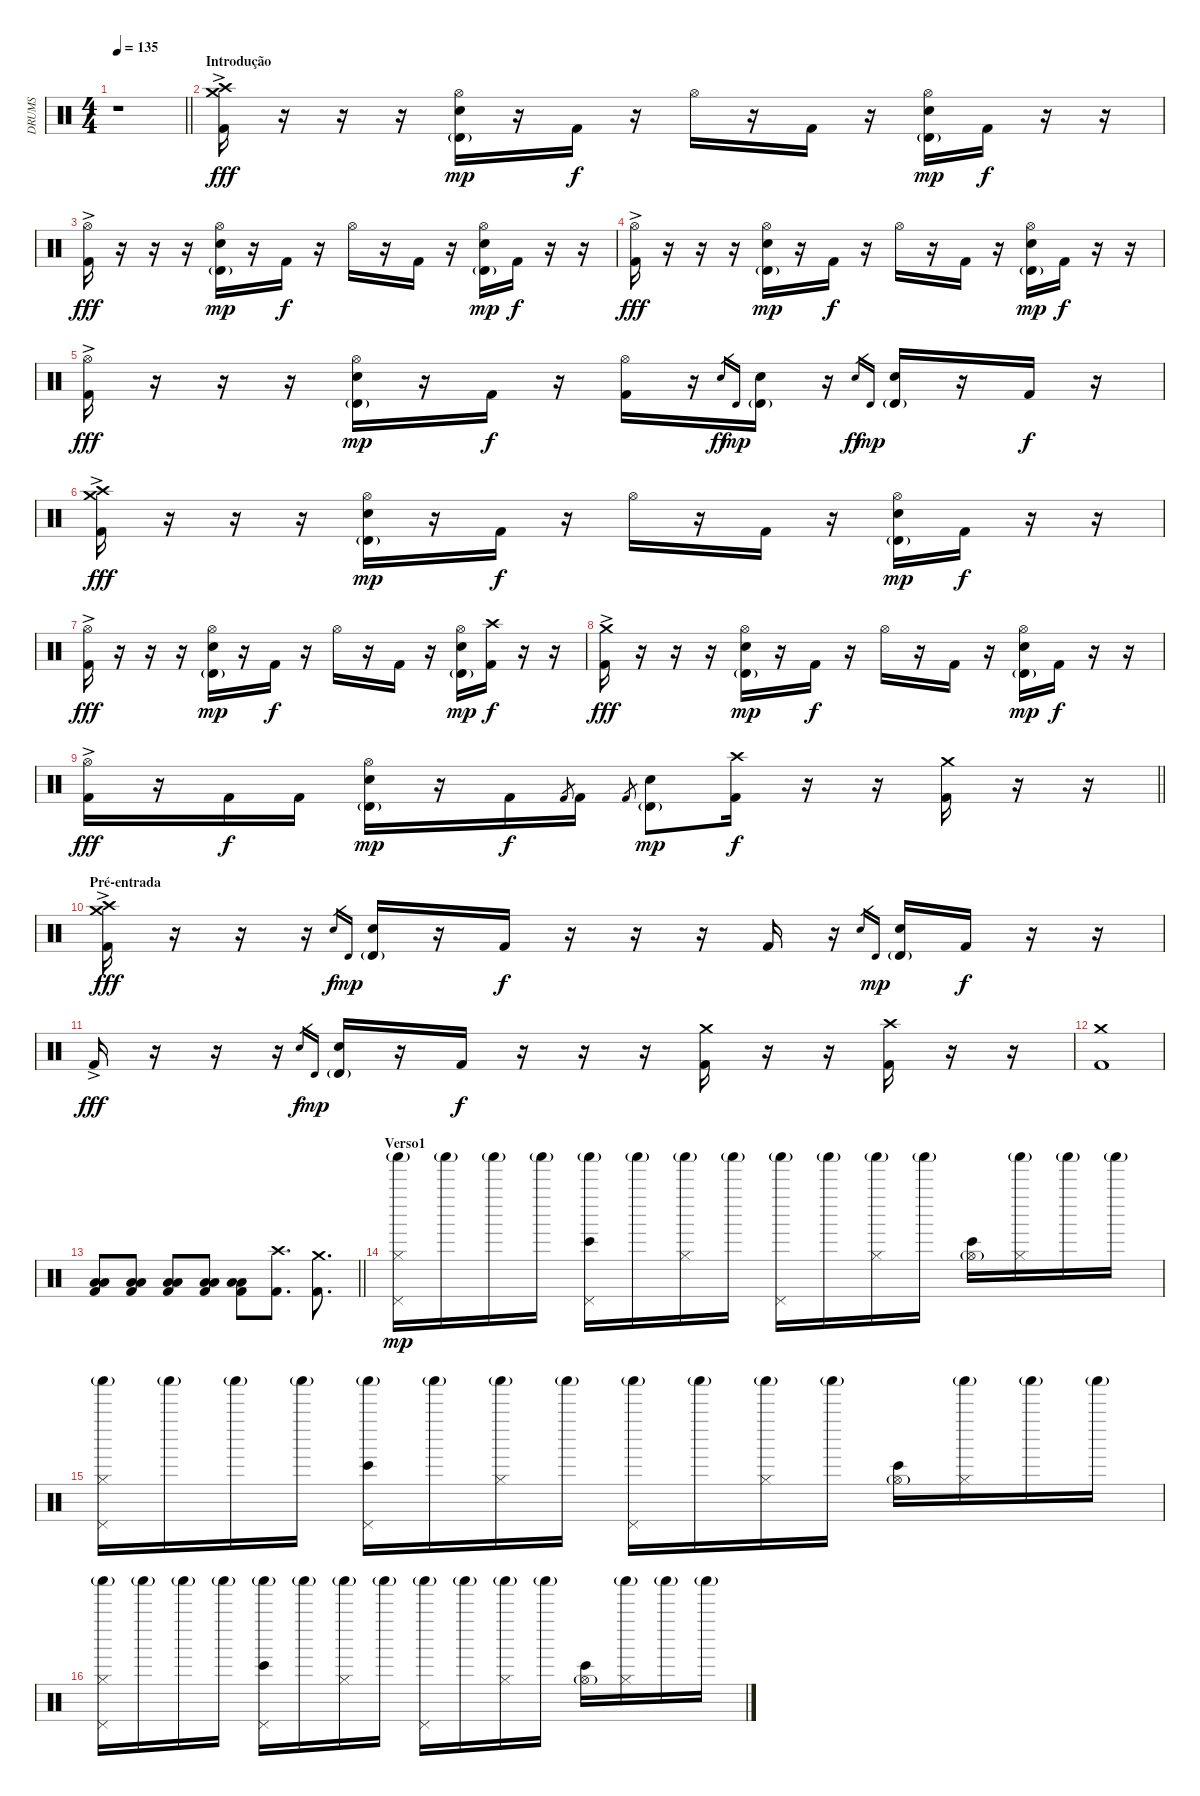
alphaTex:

\track ("DRUMS" "DRUMS") {instrument percussion}
\staff {score}
\articulation defaults
\ts (4 4)
\tempo 135
\clef neutral
\barLineRight lightlight
\ks c
r.1{dy fff} |
\section ("" "Introdução")
("Crash high (hit)" "Crash medium (hit)" "Kick (hit) 2"{ac}).16 r.16 r.16 r.16 ("Hi-Hat (open)" "Electric Snare (hit)" "Timbale high (hit)"{g}).16{dy mp} r.16 "Kick (hit) 2".16{dy f} r.16 "Hi-Hat (open)".16 r.16 "Kick (hit) 2".16 r.16 ("Hi-Hat (open)" "Electric Snare (hit)" "Timbale high (hit)"{g}).16{dy mp} "Kick (hit) 2".16{dy f} r.16 r.16 |
("Hi-Hat (open)" "Kick (hit) 2"{ac}).16{dy fff} r.16 r.16 r.16 ("Hi-Hat (open)" "Electric Snare (hit)" "Timbale high (hit)"{g}).16{dy mp} r.16 "Kick (hit) 2".16{dy f} r.16 "Hi-Hat (open)".16 r.16 "Kick (hit) 2".16 r.16 ("Hi-Hat (open)" "Electric Snare (hit)" "Timbale high (hit)"{g}).16{dy mp} "Kick (hit) 2".16{dy f} r.16 r.16 |
("Hi-Hat (open)" "Kick (hit) 2"{ac}).16{dy fff} r.16 r.16 r.16 ("Hi-Hat (open)" "Electric Snare (hit)" "Timbale high (hit)"{g}).16{dy mp} r.16 "Kick (hit) 2".16{dy f} r.16 "Hi-Hat (open)".16 r.16 "Kick (hit) 2".16 r.16 ("Hi-Hat (open)" "Electric Snare (hit)" "Timbale high (hit)"{g}).16{dy mp} "Kick (hit) 2".16{dy f} r.16 r.16 |
("Hi-Hat (open)" "Kick (hit) 2"{ac}).16{dy fff} r.16 r.16 r.16 ("Hi-Hat (open)" "Electric Snare (hit)" "Timbale high (hit)"{g}).16{dy mp} r.16 "Kick (hit) 2".16{dy f} r.16 ("Hi-Hat (open)" "Kick (hit) 2").16 r.16 "Electric Snare (hit)".16{gr dy ff} "Timbale high (hit)".16{gr dy mp} ("Electric Snare (hit)" "Timbale high (hit)"{g}).16 r.16 "Electric Snare (hit)".16{gr dy ff} "Timbale high (hit)".16{gr dy mp} ("Electric Snare (hit)" "Timbale high (hit)"{g}).16 r.16 "Kick (hit) 2".16{dy f} r.16 |
("Crash high (hit)" "Crash medium (hit)" "Kick (hit) 2"{ac}).16{dy fff} r.16 r.16 r.16 ("Hi-Hat (open)" "Electric Snare (hit)" "Timbale high (hit)"{g}).16{dy mp} r.16 "Kick (hit) 2".16{dy f} r.16 "Hi-Hat (open)".16 r.16 "Kick (hit) 2".16 r.16 ("Hi-Hat (open)" "Electric Snare (hit)" "Timbale high (hit)"{g}).16{dy mp} "Kick (hit) 2".16{dy f} r.16 r.16 |
("Hi-Hat (open)" "Kick (hit) 2"{ac}).16{dy fff} r.16 r.16 r.16 ("Hi-Hat (open)" "Electric Snare (hit)" "Timbale high (hit)"{g}).16{dy mp} r.16 "Kick (hit) 2".16{dy f} r.16 "Hi-Hat (open)".16 r.16 "Kick (hit) 2".16 r.16 ("Hi-Hat (open)" "Electric Snare (hit)" "Timbale high (hit)"{g}).16{dy mp} ("Crash high (hit)" "Kick (hit) 2").16{dy f} r.16 r.16 |
("Crash medium (hit)" "Kick (hit) 2"{ac}).16{dy fff} r.16 r.16 r.16 ("Hi-Hat (open)" "Electric Snare (hit)" "Timbale high (hit)"{g}).16{dy mp} r.16 "Kick (hit) 2".16{dy f} r.16 "Hi-Hat (open)".16 r.16 "Kick (hit) 2".16 r.16 ("Hi-Hat (open)" "Electric Snare (hit)" "Timbale high (hit)"{g}).16{dy mp} "Kick (hit) 2".16{dy f} r.16 r.16 |
\barLineRight lightlight
("Hi-Hat (open)" "Kick (hit) 2"{ac}).16{dy fff} r.16 "Kick (hit) 2".16{dy f} "Kick (hit) 2".16 ("Hi-Hat (open)" "Electric Snare (hit)" "Timbale high (hit)"{g}).16{dy mp} r.16 "Kick (hit) 2".16{dy f} "Kick (hit) 2".8{gr} "Kick (hit) 2".16 "Kick (hit) 2".8{gr} ("Electric Snare (hit)" "Timbale high (hit)"{g}).8{dy mp} ("Kick (hit) 2" "Crash high (hit)").16{dy f} r.16 r.16 ("Kick (hit) 2" "Crash medium (hit)").16 r.16 r.16 |
\section ("" "Pré-entrada")
("Crash high (hit)" "Crash medium (hit)" "Kick (hit) 2"{ac}).16{dy fff} r.16 r.16 r.16 "Electric Snare (hit)".16{gr dy f} "Timbale high (hit)".16{gr dy mp} ("Electric Snare (hit)" "Timbale high (hit)"{g}).16 r.16 "Kick (hit) 2".16{dy f} r.16 r.16 r.16 "Kick (hit) 2".16 r.16 "Electric Snare (hit)".16{gr} "Timbale high (hit)".16{gr dy mp} ("Electric Snare (hit)" "Timbale high (hit)"{g}).16 "Kick (hit) 2".16{dy f} r.16 r.16 |
"Kick (hit) 2"{ac}.16{dy fff} r.16 r.16 r.16 "Electric Snare (hit)".16{gr dy f} "Timbale high (hit)".16{gr dy mp} ("Electric Snare (hit)" "Timbale high (hit)"{g}).16 r.16 "Kick (hit) 2".16{dy f} r.16 r.16 r.16 ("Crash medium (hit)" "Kick (hit) 2").16 r.16 r.16 ("Crash high (hit)" "Kick (hit) 2").16 r.16 r.16 |
("Crash medium (hit)" "Kick (hit) 2").1 |
\barLineRight lightlight
("Kick (hit) 2" "Low Tom (hit)" "Low Floor Tom (hit)").8 ("Kick (hit) 2" "Low Tom (hit)" "Low Floor Tom (hit)").8 ("Kick (hit) 2" "Low Tom (hit)" "Low Floor Tom (hit)").8 ("Kick (hit) 2" "Low Tom (hit)" "Low Floor Tom (hit)").8 ("Kick (hit) 2" "Low Tom (hit)" "Low Floor Tom (hit)").8 ("Kick (hit) 2" "Crash high (hit)").8{d} ("Kick (hit) 2" "Crash medium (hit)").8{d} |
\section ("" "Verso1")
("Shaker (hit)"{g} "Hi-Hat (closed)" "Pedal Hi-Hat (hit)").16{dy mp} "Shaker (hit)"{g}.16 "Shaker (hit)"{g}.16 "Shaker (hit)"{g}.16 ("Shaker (hit)"{g} "Bongo High (hit)" "Pedal Hi-Hat (hit)").16 "Shaker (hit)"{g}.16 ("Shaker (hit)"{g} "Hi-Hat (closed)").16 "Shaker (hit)"{g}.16 ("Shaker (hit)"{g} "Pedal Hi-Hat (hit)").16 "Shaker (hit)"{g}.16 ("Shaker (hit)"{g} "Hi-Hat (closed)").16 "Shaker (hit)"{g}.16 ("Bongo High (hit)" "Hi-Hat (open)"{g}).16 ("Shaker (hit)"{g} "Hi-Hat (closed)").16 "Shaker (hit)"{g}.16 "Shaker (hit)"{g}.16 |
("Shaker (hit)"{g} "Hi-Hat (closed)" "Pedal Hi-Hat (hit)").16 "Shaker (hit)"{g}.16 "Shaker (hit)"{g}.16 "Shaker (hit)"{g}.16 ("Shaker (hit)"{g} "Bongo High (hit)" "Pedal Hi-Hat (hit)").16 "Shaker (hit)"{g}.16 ("Shaker (hit)"{g} "Hi-Hat (closed)").16 "Shaker (hit)"{g}.16 ("Shaker (hit)"{g} "Pedal Hi-Hat (hit)").16 "Shaker (hit)"{g}.16 ("Shaker (hit)"{g} "Hi-Hat (closed)").16 "Shaker (hit)"{g}.16 ("Bongo High (hit)" "Hi-Hat (open)"{g}).16 ("Shaker (hit)"{g} "Hi-Hat (closed)").16 "Shaker (hit)"{g}.16 "Shaker (hit)"{g}.16 |
("Shaker (hit)"{g} "Hi-Hat (closed)" "Pedal Hi-Hat (hit)").16 "Shaker (hit)"{g}.16 "Shaker (hit)"{g}.16 "Shaker (hit)"{g}.16 ("Shaker (hit)"{g} "Bongo High (hit)" "Pedal Hi-Hat (hit)").16 "Shaker (hit)"{g}.16 ("Shaker (hit)"{g} "Hi-Hat (closed)").16 "Shaker (hit)"{g}.16 ("Shaker (hit)"{g} "Pedal Hi-Hat (hit)").16 "Shaker (hit)"{g}.16 ("Shaker (hit)"{g} "Hi-Hat (closed)").16 "Shaker (hit)"{g}.16 ("Bongo High (hit)" "Hi-Hat (open)"{g}).16 ("Shaker (hit)"{g} "Hi-Hat (closed)").16 "Shaker (hit)"{g}.16 "Shaker (hit)"{g}.16
